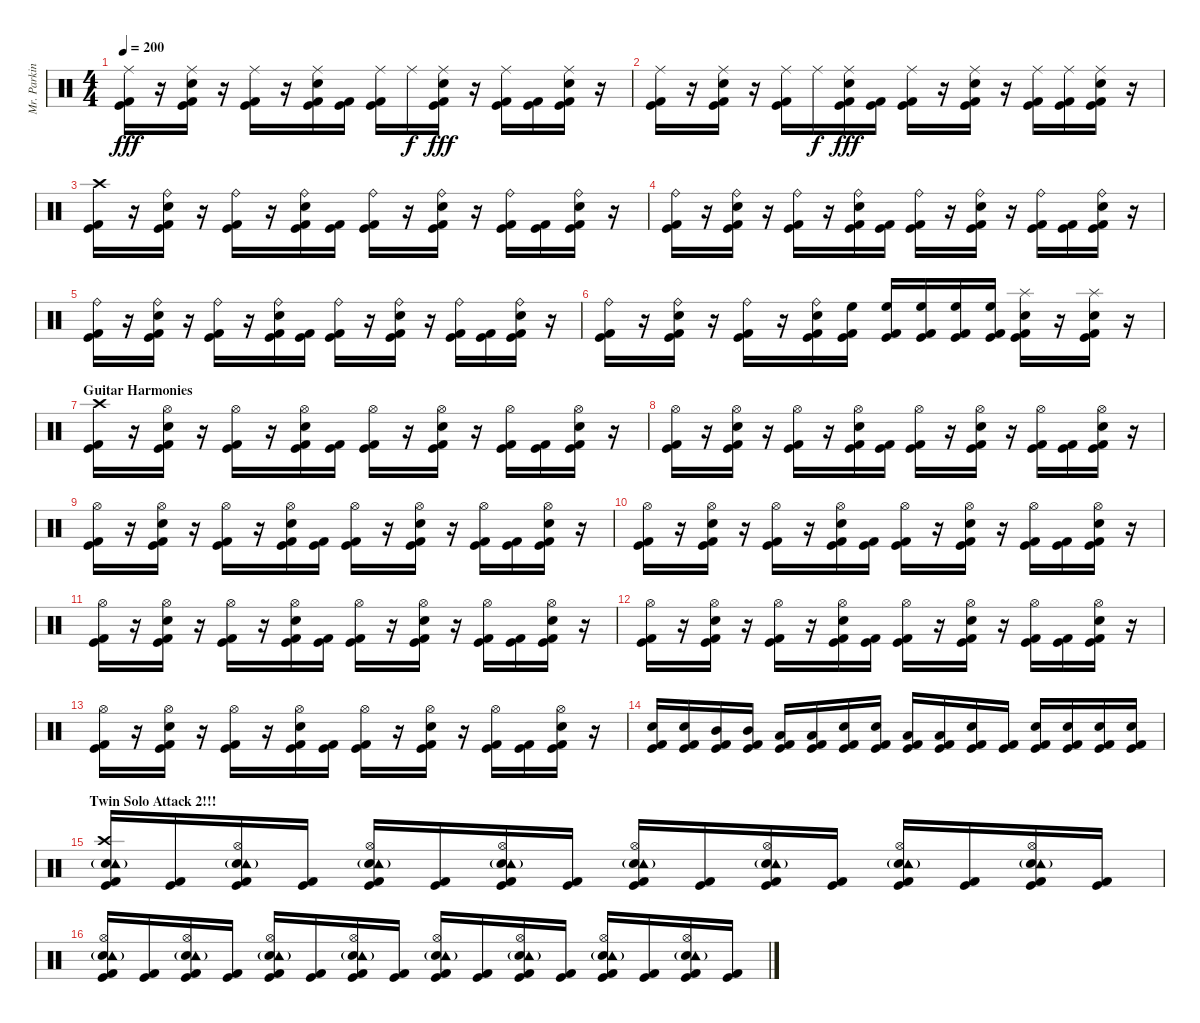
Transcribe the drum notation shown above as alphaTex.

\track ("Mr. Parkinson" "Mr. Parkin") {instrument percussion}
\staff {score}
\articulation defaults
\ts (4 4)
\tempo 200
\clef neutral
\ks c
("Ride (middle)" "Kick (hit)" "Kick (hit) 2").16{dy fff} r.16 ("Ride (middle)" "Electric Snare (hit)" "Kick (hit)" "Kick (hit) 2").16 r.16 ("Ride (middle)" "Kick (hit)" "Kick (hit) 2").16 r.16 ("Ride (middle)" "Electric Snare (hit)" "Kick (hit)" "Kick (hit) 2").16 ("Kick (hit)" "Kick (hit) 2").16 ("Ride (middle)" "Kick (hit)" "Kick (hit) 2").16 "Ride (middle)".16{dy f} ("Ride (middle)" "Electric Snare (hit)" "Kick (hit)" "Kick (hit) 2").16{dy fff} r.16 ("Ride (middle)" "Kick (hit)" "Kick (hit) 2").16 ("Kick (hit)" "Kick (hit) 2").16 ("Ride (middle)" "Electric Snare (hit)" "Kick (hit)" "Kick (hit) 2").16 r.16 |
("Ride (middle)" "Kick (hit)" "Kick (hit) 2").16 r.16 ("Ride (middle)" "Electric Snare (hit)" "Kick (hit)" "Kick (hit) 2").16 r.16 ("Ride (middle)" "Kick (hit)" "Kick (hit) 2").16 "Ride (middle)".16{dy f} ("Ride (middle)" "Electric Snare (hit)" "Kick (hit)" "Kick (hit) 2").16{dy fff} ("Kick (hit)" "Kick (hit) 2").16 ("Ride (middle)" "Kick (hit)" "Kick (hit) 2").16 r.16 ("Ride (middle)" "Electric Snare (hit)" "Kick (hit)" "Kick (hit) 2").16 r.16 ("Ride (middle)" "Kick (hit)" "Kick (hit) 2").16 ("Ride (middle)" "Kick (hit)" "Kick (hit) 2").16 ("Ride (middle)" "Electric Snare (hit)" "Kick (hit)" "Kick (hit) 2").16 r.16 |
("Crash high (hit)" "Kick (hit)" "Kick (hit) 2").16 r.16 ("Ride (bell)" "Electric Snare (hit)" "Kick (hit)" "Kick (hit) 2").16 r.16 ("Ride (bell)" "Kick (hit)" "Kick (hit) 2").16 r.16 ("Ride (bell)" "Electric Snare (hit)" "Kick (hit)" "Kick (hit) 2").16 ("Kick (hit)" "Kick (hit) 2").16 ("Ride (bell)" "Kick (hit)" "Kick (hit) 2").16 r.16 ("Ride (bell)" "Electric Snare (hit)" "Kick (hit)" "Kick (hit) 2").16 r.16 ("Ride (bell)" "Kick (hit)" "Kick (hit) 2").16 ("Kick (hit)" "Kick (hit) 2").16 ("Ride (bell)" "Electric Snare (hit)" "Kick (hit)" "Kick (hit) 2").16 r.16 |
("Ride (bell)" "Kick (hit)" "Kick (hit) 2").16 r.16 ("Ride (bell)" "Electric Snare (hit)" "Kick (hit)" "Kick (hit) 2").16 r.16 ("Ride (bell)" "Kick (hit)" "Kick (hit) 2").16 r.16 ("Ride (bell)" "Electric Snare (hit)" "Kick (hit)" "Kick (hit) 2").16 ("Kick (hit)" "Kick (hit) 2").16 ("Ride (bell)" "Kick (hit)" "Kick (hit) 2").16 r.16 ("Ride (bell)" "Electric Snare (hit)" "Kick (hit)" "Kick (hit) 2").16 r.16 ("Ride (bell)" "Kick (hit)" "Kick (hit) 2").16 ("Kick (hit)" "Kick (hit) 2").16 ("Ride (bell)" "Electric Snare (hit)" "Kick (hit)" "Kick (hit) 2").16 r.16 |
("Ride (bell)" "Kick (hit)" "Kick (hit) 2").16 r.16 ("Ride (bell)" "Electric Snare (hit)" "Kick (hit)" "Kick (hit) 2").16 r.16 ("Ride (bell)" "Kick (hit)" "Kick (hit) 2").16 r.16 ("Ride (bell)" "Electric Snare (hit)" "Kick (hit)" "Kick (hit) 2").16 ("Kick (hit)" "Kick (hit) 2").16 ("Ride (bell)" "Kick (hit)" "Kick (hit) 2").16 r.16 ("Ride (bell)" "Electric Snare (hit)" "Kick (hit)" "Kick (hit) 2").16 r.16 ("Ride (bell)" "Kick (hit)" "Kick (hit) 2").16 ("Kick (hit)" "Kick (hit) 2").16 ("Ride (bell)" "Electric Snare (hit)" "Kick (hit)" "Kick (hit) 2").16 r.16 |
("Ride (bell)" "Kick (hit)" "Kick (hit) 2").16 r.16 ("Ride (bell)" "Electric Snare (hit)" "Kick (hit)" "Kick (hit) 2").16 r.16 ("Ride (bell)" "Kick (hit)" "Kick (hit) 2").16 r.16 ("Ride (bell)" "Electric Snare (hit)" "Kick (hit)" "Kick (hit) 2").16 ("High Floor Tom (hit)" "Kick (hit)" "Kick (hit) 2").16 ("High Floor Tom (hit)" "Kick (hit)" "Kick (hit) 2").16 ("High Floor Tom (hit)" "Kick (hit)" "Kick (hit) 2").16 ("High Floor Tom (hit)" "Kick (hit)" "Kick (hit) 2").16 ("High Floor Tom (hit)" "Kick (hit)" "Kick (hit) 2").16 ("Splash (hit)" "Electric Snare (hit)" "Kick (hit)" "Kick (hit) 2").16 r.16 ("Splash (hit)" "Electric Snare (hit)" "Kick (hit)" "Kick (hit) 2").16 r.16 |
\section ("" "Guitar Harmonies")
("Crash high (hit)" "Kick (hit)" "Kick (hit) 2").16 r.16 ("Hi-Hat (open)" "Electric Snare (hit)" "Kick (hit)" "Kick (hit) 2").16 r.16 ("Hi-Hat (open)" "Kick (hit)" "Kick (hit) 2").16 r.16 ("Hi-Hat (open)" "Electric Snare (hit)" "Kick (hit)" "Kick (hit) 2").16 ("Kick (hit)" "Kick (hit) 2").16 ("Hi-Hat (open)" "Kick (hit)" "Kick (hit) 2").16 r.16 ("Hi-Hat (open)" "Electric Snare (hit)" "Kick (hit)" "Kick (hit) 2").16 r.16 ("Hi-Hat (open)" "Kick (hit)" "Kick (hit) 2").16 ("Kick (hit)" "Kick (hit) 2").16 ("Hi-Hat (open)" "Electric Snare (hit)" "Kick (hit)" "Kick (hit) 2").16 r.16 |
("Hi-Hat (open)" "Kick (hit)" "Kick (hit) 2").16 r.16 ("Hi-Hat (open)" "Electric Snare (hit)" "Kick (hit)" "Kick (hit) 2").16 r.16 ("Hi-Hat (open)" "Kick (hit)" "Kick (hit) 2").16 r.16 ("Hi-Hat (open)" "Electric Snare (hit)" "Kick (hit)" "Kick (hit) 2").16 ("Kick (hit)" "Kick (hit) 2").16 ("Hi-Hat (open)" "Kick (hit)" "Kick (hit) 2").16 r.16 ("Hi-Hat (open)" "Electric Snare (hit)" "Kick (hit)" "Kick (hit) 2").16 r.16 ("Hi-Hat (open)" "Kick (hit)" "Kick (hit) 2").16 ("Kick (hit)" "Kick (hit) 2").16 ("Hi-Hat (open)" "Electric Snare (hit)" "Kick (hit)" "Kick (hit) 2").16 r.16 |
("Hi-Hat (open)" "Kick (hit)" "Kick (hit) 2").16 r.16 ("Hi-Hat (open)" "Electric Snare (hit)" "Kick (hit)" "Kick (hit) 2").16 r.16 ("Hi-Hat (open)" "Kick (hit)" "Kick (hit) 2").16 r.16 ("Hi-Hat (open)" "Electric Snare (hit)" "Kick (hit)" "Kick (hit) 2").16 ("Kick (hit)" "Kick (hit) 2").16 ("Hi-Hat (open)" "Kick (hit)" "Kick (hit) 2").16 r.16 ("Hi-Hat (open)" "Electric Snare (hit)" "Kick (hit)" "Kick (hit) 2").16 r.16 ("Hi-Hat (open)" "Kick (hit)" "Kick (hit) 2").16 ("Kick (hit)" "Kick (hit) 2").16 ("Hi-Hat (open)" "Electric Snare (hit)" "Kick (hit)" "Kick (hit) 2").16 r.16 |
("Hi-Hat (open)" "Kick (hit)" "Kick (hit) 2").16 r.16 ("Hi-Hat (open)" "Electric Snare (hit)" "Kick (hit)" "Kick (hit) 2").16 r.16 ("Hi-Hat (open)" "Kick (hit)" "Kick (hit) 2").16 r.16 ("Hi-Hat (open)" "Electric Snare (hit)" "Kick (hit)" "Kick (hit) 2").16 ("Kick (hit)" "Kick (hit) 2").16 ("Hi-Hat (open)" "Kick (hit)" "Kick (hit) 2").16 r.16 ("Hi-Hat (open)" "Electric Snare (hit)" "Kick (hit)" "Kick (hit) 2").16 r.16 ("Hi-Hat (open)" "Kick (hit)" "Kick (hit) 2").16 ("Kick (hit)" "Kick (hit) 2").16 ("Hi-Hat (open)" "Electric Snare (hit)" "Kick (hit)" "Kick (hit) 2").16 r.16 |
("Hi-Hat (open)" "Kick (hit)" "Kick (hit) 2").16 r.16 ("Hi-Hat (open)" "Electric Snare (hit)" "Kick (hit)" "Kick (hit) 2").16 r.16 ("Hi-Hat (open)" "Kick (hit)" "Kick (hit) 2").16 r.16 ("Hi-Hat (open)" "Electric Snare (hit)" "Kick (hit)" "Kick (hit) 2").16 ("Kick (hit)" "Kick (hit) 2").16 ("Hi-Hat (open)" "Kick (hit)" "Kick (hit) 2").16 r.16 ("Hi-Hat (open)" "Electric Snare (hit)" "Kick (hit)" "Kick (hit) 2").16 r.16 ("Hi-Hat (open)" "Kick (hit)" "Kick (hit) 2").16 ("Kick (hit)" "Kick (hit) 2").16 ("Hi-Hat (open)" "Electric Snare (hit)" "Kick (hit)" "Kick (hit) 2").16 r.16 |
("Hi-Hat (open)" "Kick (hit)" "Kick (hit) 2").16 r.16 ("Hi-Hat (open)" "Electric Snare (hit)" "Kick (hit)" "Kick (hit) 2").16 r.16 ("Hi-Hat (open)" "Kick (hit)" "Kick (hit) 2").16 r.16 ("Hi-Hat (open)" "Electric Snare (hit)" "Kick (hit)" "Kick (hit) 2").16 ("Kick (hit)" "Kick (hit) 2").16 ("Hi-Hat (open)" "Kick (hit)" "Kick (hit) 2").16 r.16 ("Hi-Hat (open)" "Electric Snare (hit)" "Kick (hit)" "Kick (hit) 2").16 r.16 ("Hi-Hat (open)" "Kick (hit)" "Kick (hit) 2").16 ("Kick (hit)" "Kick (hit) 2").16 ("Hi-Hat (open)" "Electric Snare (hit)" "Kick (hit)" "Kick (hit) 2").16 r.16 |
("Hi-Hat (open)" "Kick (hit)" "Kick (hit) 2").16 r.16 ("Hi-Hat (open)" "Electric Snare (hit)" "Kick (hit)" "Kick (hit) 2").16 r.16 ("Hi-Hat (open)" "Kick (hit)" "Kick (hit) 2").16 r.16 ("Hi-Hat (open)" "Electric Snare (hit)" "Kick (hit)" "Kick (hit) 2").16 ("Kick (hit)" "Kick (hit) 2").16 ("Hi-Hat (open)" "Kick (hit)" "Kick (hit) 2").16 r.16 ("Hi-Hat (open)" "Electric Snare (hit)" "Kick (hit)" "Kick (hit) 2").16 r.16 ("Hi-Hat (open)" "Kick (hit)" "Kick (hit) 2").16 ("Kick (hit)" "Kick (hit) 2").16 ("Hi-Hat (open)" "Electric Snare (hit)" "Kick (hit)" "Kick (hit) 2").16 r.16 |
("Electric Snare (hit)" "Kick (hit)" "Kick (hit) 2").16 ("Electric Snare (hit)" "Kick (hit)" "Kick (hit) 2").16 ("Mid Tom (hit)" "Kick (hit)" "Kick (hit) 2").16 ("Mid Tom (hit)" "Kick (hit)" "Kick (hit) 2").16 ("Low Tom (hit)" "Kick (hit)" "Kick (hit) 2").16 ("Low Tom (hit)" "Kick (hit)" "Kick (hit) 2").16 ("Electric Snare (hit)" "Kick (hit)" "Kick (hit) 2").16 ("Electric Snare (hit)" "Kick (hit)" "Kick (hit) 2").16 ("Low Tom (hit)" "Kick (hit)" "Kick (hit) 2").16 ("Low Tom (hit)" "Kick (hit)" "Kick (hit) 2").16 ("Electric Snare (hit)" "Kick (hit)" "Kick (hit) 2").16 ("Kick (hit)" "Kick (hit) 2").16 ("Electric Snare (hit)" "Kick (hit)" "Kick (hit) 2").16 ("Electric Snare (hit)" "Kick (hit)" "Kick (hit) 2").16 ("Electric Snare (hit)" "Kick (hit)" "Kick (hit) 2").16 ("Electric Snare (hit)" "Kick (hit)" "Kick (hit) 2").16 |
\section ("" "Twin Solo Attack 2!!!")
("Crash high (hit)" "Electric Snare (hit)" "Tambourine (hit)"{g} "Kick (hit)" "Kick (hit) 2").16 ("Kick (hit)" "Kick (hit) 2").16 ("Hi-Hat (open)" "Electric Snare (hit)" "Tambourine (hit)"{g} "Kick (hit)" "Kick (hit) 2").16 ("Kick (hit)" "Kick (hit) 2").16 ("Hi-Hat (open)" "Electric Snare (hit)" "Tambourine (hit)"{g} "Kick (hit)" "Kick (hit) 2").16 ("Kick (hit)" "Kick (hit) 2").16 ("Hi-Hat (open)" "Electric Snare (hit)" "Tambourine (hit)"{g} "Kick (hit)" "Kick (hit) 2").16 ("Kick (hit)" "Kick (hit) 2").16 ("Hi-Hat (open)" "Electric Snare (hit)" "Tambourine (hit)"{g} "Kick (hit)" "Kick (hit) 2").16 ("Kick (hit)" "Kick (hit) 2").16 ("Hi-Hat (open)" "Electric Snare (hit)" "Tambourine (hit)"{g} "Kick (hit)" "Kick (hit) 2").16 ("Kick (hit)" "Kick (hit) 2").16 ("Hi-Hat (open)" "Electric Snare (hit)" "Tambourine (hit)"{g} "Kick (hit)" "Kick (hit) 2").16 ("Kick (hit)" "Kick (hit) 2").16 ("Hi-Hat (open)" "Electric Snare (hit)" "Tambourine (hit)"{g} "Kick (hit)" "Kick (hit) 2").16 ("Kick (hit)" "Kick (hit) 2").16 |
("Hi-Hat (open)" "Electric Snare (hit)" "Tambourine (hit)"{g} "Kick (hit)" "Kick (hit) 2").16 ("Kick (hit)" "Kick (hit) 2").16 ("Hi-Hat (open)" "Electric Snare (hit)" "Tambourine (hit)"{g} "Kick (hit)" "Kick (hit) 2").16 ("Kick (hit)" "Kick (hit) 2").16 ("Hi-Hat (open)" "Electric Snare (hit)" "Tambourine (hit)"{g} "Kick (hit)" "Kick (hit) 2").16 ("Kick (hit)" "Kick (hit) 2").16 ("Hi-Hat (open)" "Electric Snare (hit)" "Tambourine (hit)"{g} "Kick (hit)" "Kick (hit) 2").16 ("Kick (hit)" "Kick (hit) 2").16 ("Hi-Hat (open)" "Electric Snare (hit)" "Tambourine (hit)"{g} "Kick (hit)" "Kick (hit) 2").16 ("Kick (hit)" "Kick (hit) 2").16 ("Hi-Hat (open)" "Electric Snare (hit)" "Tambourine (hit)"{g} "Kick (hit)" "Kick (hit) 2").16 ("Kick (hit)" "Kick (hit) 2").16 ("Hi-Hat (open)" "Electric Snare (hit)" "Tambourine (hit)"{g} "Kick (hit)" "Kick (hit) 2").16 ("Kick (hit)" "Kick (hit) 2").16 ("Hi-Hat (open)" "Electric Snare (hit)" "Tambourine (hit)"{g} "Kick (hit)" "Kick (hit) 2").16 ("Kick (hit)" "Kick (hit) 2").16
